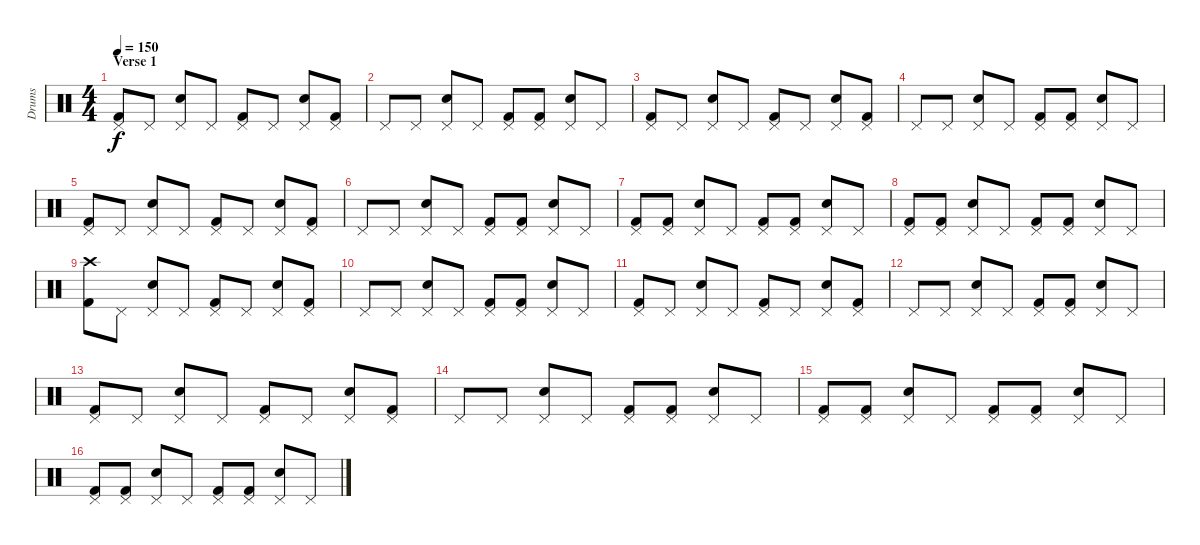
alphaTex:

\track ("Drums" "Drums") {instrument percussion}
\staff {score}
\articulation defaults
\ts (4 4)
\section ("" "Verse 1")
\tempo 150
\clef neutral
\ks c
("Pedal Hi-Hat (hit)" "Kick (hit) 2").8{dy f} "Pedal Hi-Hat (hit)".8 ("Pedal Hi-Hat (hit)" "Electric Snare (hit)").8 "Pedal Hi-Hat (hit)".8 ("Pedal Hi-Hat (hit)" "Kick (hit) 2").8 "Pedal Hi-Hat (hit)".8 ("Pedal Hi-Hat (hit)" "Electric Snare (hit)").8 ("Pedal Hi-Hat (hit)" "Kick (hit) 2").8 |
"Pedal Hi-Hat (hit)".8 "Pedal Hi-Hat (hit)".8 ("Pedal Hi-Hat (hit)" "Electric Snare (hit)").8 "Pedal Hi-Hat (hit)".8 ("Pedal Hi-Hat (hit)" "Kick (hit) 2").8 ("Pedal Hi-Hat (hit)" "Kick (hit) 2").8 ("Pedal Hi-Hat (hit)" "Electric Snare (hit)").8 "Pedal Hi-Hat (hit)".8 |
("Pedal Hi-Hat (hit)" "Kick (hit) 2").8 "Pedal Hi-Hat (hit)".8 ("Pedal Hi-Hat (hit)" "Electric Snare (hit)").8 "Pedal Hi-Hat (hit)".8 ("Pedal Hi-Hat (hit)" "Kick (hit) 2").8 "Pedal Hi-Hat (hit)".8 ("Pedal Hi-Hat (hit)" "Electric Snare (hit)").8 ("Pedal Hi-Hat (hit)" "Kick (hit) 2").8 |
"Pedal Hi-Hat (hit)".8 "Pedal Hi-Hat (hit)".8 ("Pedal Hi-Hat (hit)" "Electric Snare (hit)").8 "Pedal Hi-Hat (hit)".8 ("Pedal Hi-Hat (hit)" "Kick (hit) 2").8 ("Pedal Hi-Hat (hit)" "Kick (hit) 2").8 ("Pedal Hi-Hat (hit)" "Electric Snare (hit)").8 "Pedal Hi-Hat (hit)".8 |
("Pedal Hi-Hat (hit)" "Kick (hit) 2").8 "Pedal Hi-Hat (hit)".8 ("Pedal Hi-Hat (hit)" "Electric Snare (hit)").8 "Pedal Hi-Hat (hit)".8 ("Pedal Hi-Hat (hit)" "Kick (hit) 2").8 "Pedal Hi-Hat (hit)".8 ("Pedal Hi-Hat (hit)" "Electric Snare (hit)").8 ("Pedal Hi-Hat (hit)" "Kick (hit) 2").8 |
"Pedal Hi-Hat (hit)".8 "Pedal Hi-Hat (hit)".8 ("Pedal Hi-Hat (hit)" "Electric Snare (hit)").8 "Pedal Hi-Hat (hit)".8 ("Pedal Hi-Hat (hit)" "Kick (hit) 2").8 ("Pedal Hi-Hat (hit)" "Kick (hit) 2").8 ("Pedal Hi-Hat (hit)" "Electric Snare (hit)").8 "Pedal Hi-Hat (hit)".8 |
("Pedal Hi-Hat (hit)" "Kick (hit) 2").8 ("Pedal Hi-Hat (hit)" "Kick (hit) 2").8 ("Pedal Hi-Hat (hit)" "Electric Snare (hit)").8 "Pedal Hi-Hat (hit)".8 ("Pedal Hi-Hat (hit)" "Kick (hit) 2").8 ("Pedal Hi-Hat (hit)" "Kick (hit) 2").8 ("Pedal Hi-Hat (hit)" "Electric Snare (hit)").8 "Pedal Hi-Hat (hit)".8 |
("Pedal Hi-Hat (hit)" "Kick (hit) 2").8 ("Pedal Hi-Hat (hit)" "Kick (hit) 2").8 ("Pedal Hi-Hat (hit)" "Electric Snare (hit)").8 "Pedal Hi-Hat (hit)".8 ("Pedal Hi-Hat (hit)" "Kick (hit) 2").8 ("Pedal Hi-Hat (hit)" "Kick (hit) 2").8 ("Pedal Hi-Hat (hit)" "Electric Snare (hit)").8 "Pedal Hi-Hat (hit)".8 |
("Crash high (hit)" "Kick (hit) 2").8 "Pedal Hi-Hat (hit)".8 ("Pedal Hi-Hat (hit)" "Electric Snare (hit)").8 "Pedal Hi-Hat (hit)".8 ("Pedal Hi-Hat (hit)" "Kick (hit) 2").8 "Pedal Hi-Hat (hit)".8 ("Pedal Hi-Hat (hit)" "Electric Snare (hit)").8 ("Pedal Hi-Hat (hit)" "Kick (hit) 2").8 |
"Pedal Hi-Hat (hit)".8 "Pedal Hi-Hat (hit)".8 ("Pedal Hi-Hat (hit)" "Electric Snare (hit)").8 "Pedal Hi-Hat (hit)".8 ("Pedal Hi-Hat (hit)" "Kick (hit) 2").8 ("Pedal Hi-Hat (hit)" "Kick (hit) 2").8 ("Pedal Hi-Hat (hit)" "Electric Snare (hit)").8 "Pedal Hi-Hat (hit)".8 |
("Pedal Hi-Hat (hit)" "Kick (hit) 2").8 "Pedal Hi-Hat (hit)".8 ("Pedal Hi-Hat (hit)" "Electric Snare (hit)").8 "Pedal Hi-Hat (hit)".8 ("Pedal Hi-Hat (hit)" "Kick (hit) 2").8 "Pedal Hi-Hat (hit)".8 ("Pedal Hi-Hat (hit)" "Electric Snare (hit)").8 ("Pedal Hi-Hat (hit)" "Kick (hit) 2").8 |
"Pedal Hi-Hat (hit)".8 "Pedal Hi-Hat (hit)".8 ("Pedal Hi-Hat (hit)" "Electric Snare (hit)").8 "Pedal Hi-Hat (hit)".8 ("Pedal Hi-Hat (hit)" "Kick (hit) 2").8 ("Pedal Hi-Hat (hit)" "Kick (hit) 2").8 ("Pedal Hi-Hat (hit)" "Electric Snare (hit)").8 "Pedal Hi-Hat (hit)".8 |
("Pedal Hi-Hat (hit)" "Kick (hit) 2").8 "Pedal Hi-Hat (hit)".8 ("Pedal Hi-Hat (hit)" "Electric Snare (hit)").8 "Pedal Hi-Hat (hit)".8 ("Pedal Hi-Hat (hit)" "Kick (hit) 2").8 "Pedal Hi-Hat (hit)".8 ("Pedal Hi-Hat (hit)" "Electric Snare (hit)").8 ("Pedal Hi-Hat (hit)" "Kick (hit) 2").8 |
"Pedal Hi-Hat (hit)".8 "Pedal Hi-Hat (hit)".8 ("Pedal Hi-Hat (hit)" "Electric Snare (hit)").8 "Pedal Hi-Hat (hit)".8 ("Pedal Hi-Hat (hit)" "Kick (hit) 2").8 ("Pedal Hi-Hat (hit)" "Kick (hit) 2").8 ("Pedal Hi-Hat (hit)" "Electric Snare (hit)").8 "Pedal Hi-Hat (hit)".8 |
("Pedal Hi-Hat (hit)" "Kick (hit) 2").8 ("Pedal Hi-Hat (hit)" "Kick (hit) 2").8 ("Pedal Hi-Hat (hit)" "Electric Snare (hit)").8 "Pedal Hi-Hat (hit)".8 ("Pedal Hi-Hat (hit)" "Kick (hit) 2").8 ("Pedal Hi-Hat (hit)" "Kick (hit) 2").8 ("Pedal Hi-Hat (hit)" "Electric Snare (hit)").8 "Pedal Hi-Hat (hit)".8 |
("Pedal Hi-Hat (hit)" "Kick (hit) 2").8 ("Pedal Hi-Hat (hit)" "Kick (hit) 2").8 ("Pedal Hi-Hat (hit)" "Electric Snare (hit)").8 "Pedal Hi-Hat (hit)".8 ("Pedal Hi-Hat (hit)" "Kick (hit) 2").8 ("Pedal Hi-Hat (hit)" "Kick (hit) 2").8 ("Pedal Hi-Hat (hit)" "Electric Snare (hit)").8 "Pedal Hi-Hat (hit)".8
